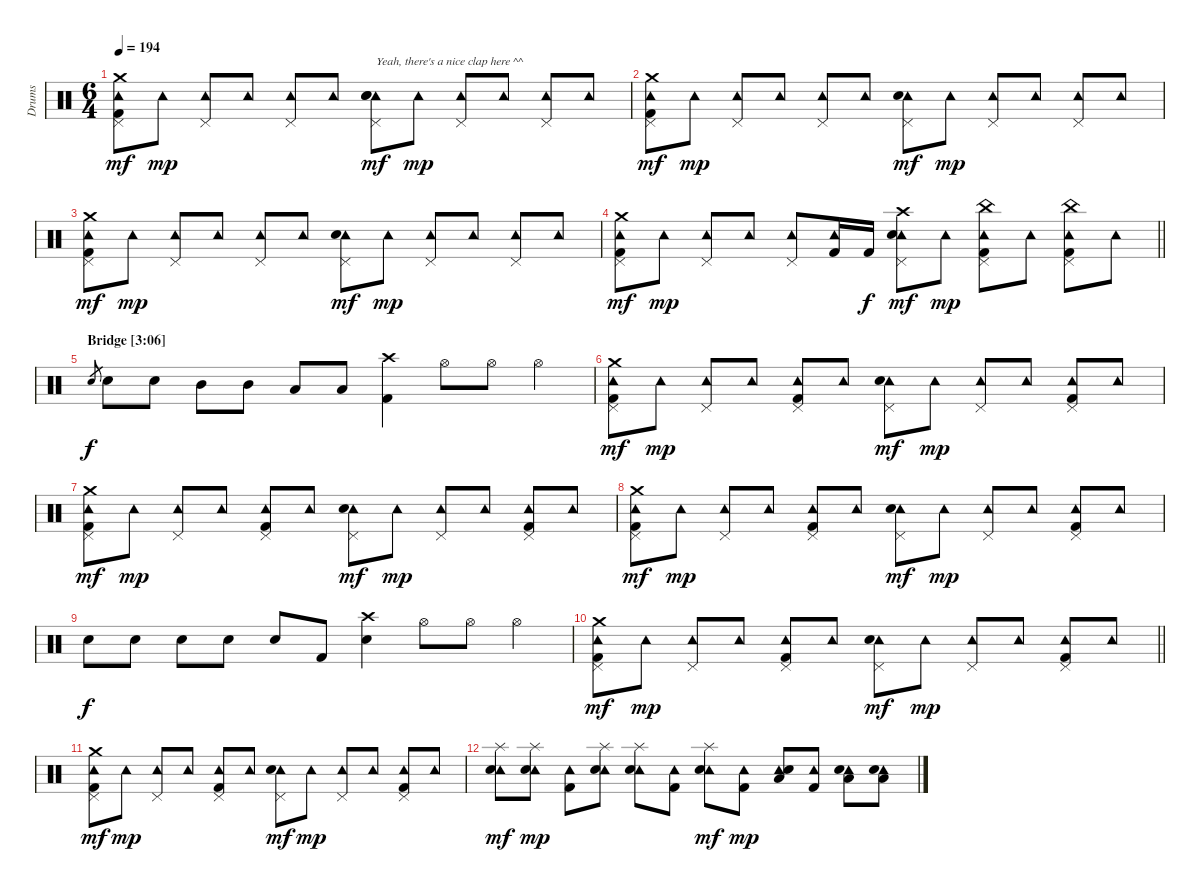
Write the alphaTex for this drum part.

\track ("Drums" "Drums") {instrument percussion}
\staff {score}
\articulation defaults
\ts (6 4)
\tempo 194
\clef neutral
\ks c
("Crash medium (hit)" "Tambourine (hit)" "Pedal Hi-Hat (hit)" "Kick (hit) 2").8{dy mf} "Tambourine (hit)".8{dy mp} ("Tambourine (hit)" "Pedal Hi-Hat (hit)").8 "Tambourine (hit)".8 ("Tambourine (hit)" "Pedal Hi-Hat (hit)").8 "Tambourine (hit)".8 ("Tambourine (hit)" "Pedal Hi-Hat (hit)" "Hand Clap (hit)" "Electric Snare (hit)").8{txt "Yeah, there's a nice clap here ^^" dy mf} "Tambourine (hit)".8{dy mp} ("Tambourine (hit)" "Pedal Hi-Hat (hit)").8 "Tambourine (hit)".8 ("Tambourine (hit)" "Pedal Hi-Hat (hit)").8 "Tambourine (hit)".8 |
("Crash medium (hit)" "Tambourine (hit)" "Pedal Hi-Hat (hit)" "Kick (hit) 2").8{dy mf} "Tambourine (hit)".8{dy mp} ("Tambourine (hit)" "Pedal Hi-Hat (hit)").8 "Tambourine (hit)".8 ("Tambourine (hit)" "Pedal Hi-Hat (hit)").8 "Tambourine (hit)".8 ("Tambourine (hit)" "Pedal Hi-Hat (hit)" "Electric Snare (hit)").8{dy mf} "Tambourine (hit)".8{dy mp} ("Tambourine (hit)" "Pedal Hi-Hat (hit)").8 "Tambourine (hit)".8 ("Tambourine (hit)" "Pedal Hi-Hat (hit)").8 "Tambourine (hit)".8 |
("Crash medium (hit)" "Tambourine (hit)" "Pedal Hi-Hat (hit)" "Kick (hit) 2").8{dy mf} "Tambourine (hit)".8{dy mp} ("Tambourine (hit)" "Pedal Hi-Hat (hit)").8 "Tambourine (hit)".8 ("Tambourine (hit)" "Pedal Hi-Hat (hit)").8 "Tambourine (hit)".8 ("Tambourine (hit)" "Pedal Hi-Hat (hit)" "Electric Snare (hit)").8{dy mf} "Tambourine (hit)".8{dy mp} ("Tambourine (hit)" "Pedal Hi-Hat (hit)").8 "Tambourine (hit)".8 ("Tambourine (hit)" "Pedal Hi-Hat (hit)").8 "Tambourine (hit)".8 |
\barLineRight lightlight
("Crash medium (hit)" "Tambourine (hit)" "Pedal Hi-Hat (hit)" "Kick (hit) 2").8{dy mf} "Tambourine (hit)".8{dy mp} ("Tambourine (hit)" "Pedal Hi-Hat (hit)").8 "Tambourine (hit)".8 ("Tambourine (hit)" "Pedal Hi-Hat (hit)").8 ("Tambourine (hit)" "Kick (hit) 2").16 "Kick (hit) 2".16{dy f} ("Crash high (hit)" "Tambourine (hit)" "Pedal Hi-Hat (hit)" "Electric Snare (hit)").8{dy mf} "Tambourine (hit)".8{dy mp} ("China (hit)" "Tambourine (hit)" "Pedal Hi-Hat (hit)" "Kick (hit) 2").8 "Tambourine (hit)".8 ("China (hit)" "Tambourine (hit)" "Pedal Hi-Hat (hit)" "Kick (hit) 2").8 "Tambourine (hit)".8 |
\section ("" "Bridge [3:06]")
"Electric Snare (hit)".8{gr dy f} "Electric Snare (hit)".8 "Electric Snare (hit)".8 "Mid Tom (hit)".8 "Mid Tom (hit)".8 "Low Tom (hit)".8 "Low Tom (hit)".8 ("Crash high (hit)" "Kick (hit) 2").4 "Hi-Hat (open)".8 "Hi-Hat (open)".8 "Hi-Hat (open)".4 |
("Crash medium (hit)" "Tambourine (hit)" "Pedal Hi-Hat (hit)" "Kick (hit) 2").8{dy mf} "Tambourine (hit)".8{dy mp} ("Tambourine (hit)" "Pedal Hi-Hat (hit)").8 "Tambourine (hit)".8 ("Tambourine (hit)" "Pedal Hi-Hat (hit)" "Kick (hit) 2").8 "Tambourine (hit)".8 ("Tambourine (hit)" "Pedal Hi-Hat (hit)" "Electric Snare (hit)").8{dy mf} "Tambourine (hit)".8{dy mp} ("Tambourine (hit)" "Pedal Hi-Hat (hit)").8 "Tambourine (hit)".8 ("Tambourine (hit)" "Pedal Hi-Hat (hit)" "Kick (hit) 2").8 "Tambourine (hit)".8 |
("Crash medium (hit)" "Tambourine (hit)" "Pedal Hi-Hat (hit)" "Kick (hit) 2").8{dy mf} "Tambourine (hit)".8{dy mp} ("Tambourine (hit)" "Pedal Hi-Hat (hit)").8 "Tambourine (hit)".8 ("Tambourine (hit)" "Pedal Hi-Hat (hit)" "Kick (hit) 2").8 "Tambourine (hit)".8 ("Tambourine (hit)" "Pedal Hi-Hat (hit)" "Electric Snare (hit)").8{dy mf} "Tambourine (hit)".8{dy mp} ("Tambourine (hit)" "Pedal Hi-Hat (hit)").8 "Tambourine (hit)".8 ("Tambourine (hit)" "Pedal Hi-Hat (hit)" "Kick (hit) 2").8 "Tambourine (hit)".8 |
("Crash medium (hit)" "Tambourine (hit)" "Pedal Hi-Hat (hit)" "Kick (hit) 2").8{dy mf} "Tambourine (hit)".8{dy mp} ("Tambourine (hit)" "Pedal Hi-Hat (hit)").8 "Tambourine (hit)".8 ("Tambourine (hit)" "Pedal Hi-Hat (hit)" "Kick (hit) 2").8 "Tambourine (hit)".8 ("Tambourine (hit)" "Pedal Hi-Hat (hit)" "Electric Snare (hit)").8{dy mf} "Tambourine (hit)".8{dy mp} ("Tambourine (hit)" "Pedal Hi-Hat (hit)").8 "Tambourine (hit)".8 ("Tambourine (hit)" "Pedal Hi-Hat (hit)" "Kick (hit) 2").8 "Tambourine (hit)".8 |
"Electric Snare (hit)".8{dy f} "Electric Snare (hit)".8 "Electric Snare (hit)".8 "Electric Snare (hit)".8 "Electric Snare (hit)".8 "Kick (hit) 2".8 ("Crash high (hit)" "Electric Snare (hit)").4 "Hi-Hat (open)".8 "Hi-Hat (open)".8 "Hi-Hat (open)".4 |
\barLineRight lightlight
("Crash medium (hit)" "Tambourine (hit)" "Pedal Hi-Hat (hit)" "Kick (hit) 2").8{dy mf} "Tambourine (hit)".8{dy mp} ("Tambourine (hit)" "Pedal Hi-Hat (hit)").8 "Tambourine (hit)".8 ("Tambourine (hit)" "Pedal Hi-Hat (hit)" "Kick (hit) 2").8 "Tambourine (hit)".8 ("Tambourine (hit)" "Pedal Hi-Hat (hit)" "Electric Snare (hit)").8{dy mf} "Tambourine (hit)".8{dy mp} ("Tambourine (hit)" "Pedal Hi-Hat (hit)").8 "Tambourine (hit)".8 ("Tambourine (hit)" "Pedal Hi-Hat (hit)" "Kick (hit) 2").8 "Tambourine (hit)".8 |
("Crash medium (hit)" "Tambourine (hit)" "Pedal Hi-Hat (hit)" "Kick (hit) 2").8{dy mf} "Tambourine (hit)".8{dy mp} ("Tambourine (hit)" "Pedal Hi-Hat (hit)").8 "Tambourine (hit)".8 ("Tambourine (hit)" "Pedal Hi-Hat (hit)" "Kick (hit) 2").8 "Tambourine (hit)".8 ("Tambourine (hit)" "Pedal Hi-Hat (hit)" "Electric Snare (hit)").8{dy mf} "Tambourine (hit)".8{dy mp} ("Tambourine (hit)" "Pedal Hi-Hat (hit)").8 "Tambourine (hit)".8 ("Tambourine (hit)" "Pedal Hi-Hat (hit)" "Kick (hit) 2").8 "Tambourine (hit)".8 |
("Splash (hit)" "Tambourine (hit)" "Electric Snare (hit)").8{dy mf} ("Splash (hit)" "Tambourine (hit)" "Electric Snare (hit)").8{dy mp} ("Tambourine (hit)" "Kick (hit) 2").8 ("Splash (hit)" "Tambourine (hit)" "Electric Snare (hit)").8 ("Splash (hit)" "Tambourine (hit)" "Electric Snare (hit)").8 ("Tambourine (hit)" "Kick (hit) 2").8 ("Splash (hit)" "Tambourine (hit)" "Electric Snare (hit)").8{dy mf} ("Tambourine (hit)" "Kick (hit) 2").8{dy mp} ("Tambourine (hit)" "Low Floor Tom (hit)" "Electric Snare (hit)").8 ("Tambourine (hit)" "Kick (hit) 2").8 ("Tambourine (hit)" "Low Floor Tom (hit)" "Electric Snare (hit)").8 ("Tambourine (hit)" "Low Floor Tom (hit)" "Electric Snare (hit)").8
